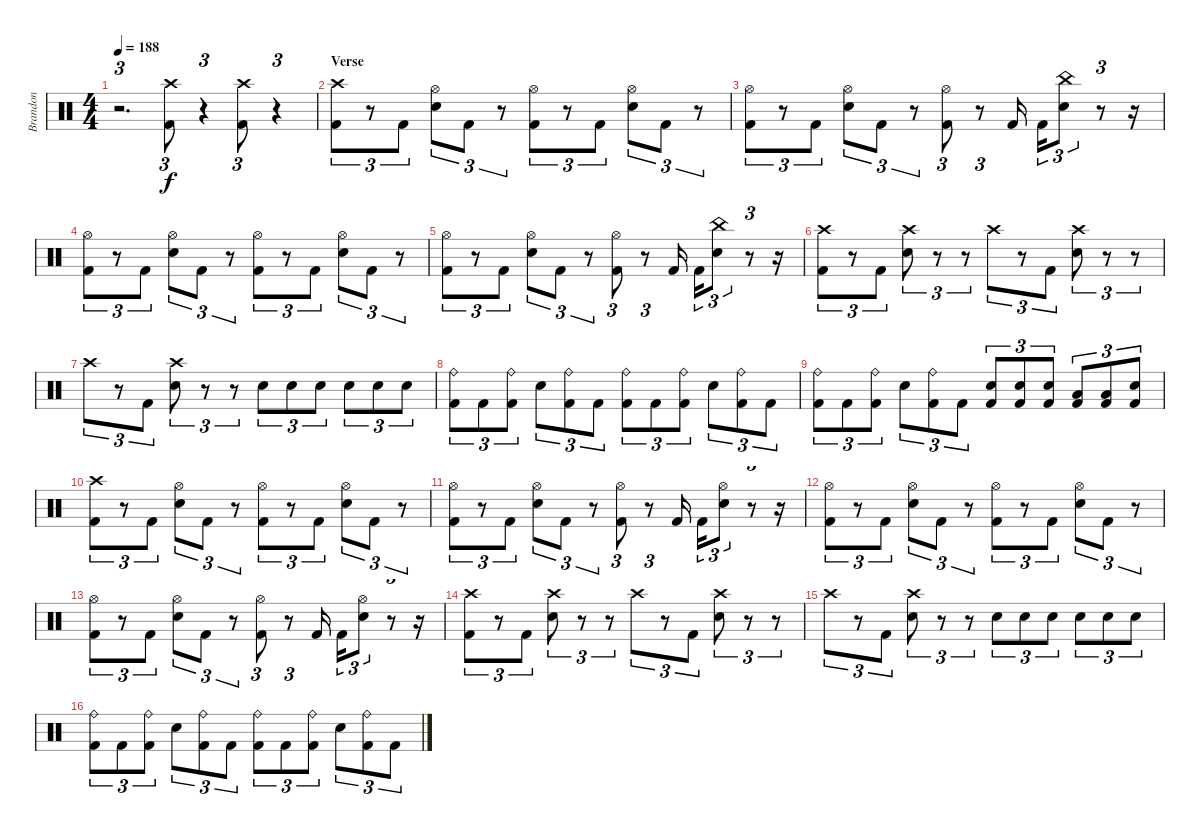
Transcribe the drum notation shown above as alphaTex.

\track ("Brandon" "Brandon") {instrument percussion}
\staff {score}
\articulation defaults
\ts (4 4)
\tempo 188
\clef neutral
\ks c
r.2{d tu (3 2) dy ppp} ("Crash high (hit)" "Kick (hit) 2").8{tu (3 2) dy f} r.4{tu (3 2)} ("Crash high (hit)" "Kick (hit) 2").8{tu (3 2)} r.4{tu (3 2)} |
\section ("" "Verse")
("Crash high (hit)" "Kick (hit) 2").8{tu (3 2)} r.8{tu (3 2)} "Kick (hit) 2".8{tu (3 2)} ("Hi-Hat (open)" "Electric Snare (hit)").8{tu (3 2)} "Kick (hit) 2".8{tu (3 2)} r.8{tu (3 2)} ("Hi-Hat (open)" "Kick (hit) 2").8{tu (3 2)} r.8{tu (3 2)} "Kick (hit) 2".8{tu (3 2)} ("Hi-Hat (open)" "Electric Snare (hit)").8{tu (3 2)} "Kick (hit) 2".8{tu (3 2)} r.8{tu (3 2)} |
("Hi-Hat (open)" "Kick (hit) 2").8{tu (3 2)} r.8{tu (3 2)} "Kick (hit) 2".8{tu (3 2)} ("Hi-Hat (open)" "Electric Snare (hit)").8{tu (3 2)} "Kick (hit) 2".8{tu (3 2)} r.8{tu (3 2)} ("Hi-Hat (open)" "Kick (hit) 2").8{tu (3 2)} r.8{tu (3 2)} "Kick (hit) 2".16 "Kick (hit) 2".16{tu (3 2)} ("China (hit)" "Electric Snare (hit)").8{tu (3 2)} r.8{tu (3 2)} r.16 |
("Hi-Hat (open)" "Kick (hit) 2").8{tu (3 2)} r.8{tu (3 2)} "Kick (hit) 2".8{tu (3 2)} ("Hi-Hat (open)" "Electric Snare (hit)").8{tu (3 2)} "Kick (hit) 2".8{tu (3 2)} r.8{tu (3 2)} ("Hi-Hat (open)" "Kick (hit) 2").8{tu (3 2)} r.8{tu (3 2)} "Kick (hit) 2".8{tu (3 2)} ("Hi-Hat (open)" "Electric Snare (hit)").8{tu (3 2)} "Kick (hit) 2".8{tu (3 2)} r.8{tu (3 2)} |
("Hi-Hat (open)" "Kick (hit) 2").8{tu (3 2)} r.8{tu (3 2)} "Kick (hit) 2".8{tu (3 2)} ("Hi-Hat (open)" "Electric Snare (hit)").8{tu (3 2)} "Kick (hit) 2".8{tu (3 2)} r.8{tu (3 2)} ("Hi-Hat (open)" "Kick (hit) 2").8{tu (3 2)} r.8{tu (3 2)} "Kick (hit) 2".16 "Kick (hit) 2".16{tu (3 2)} ("China (hit)" "Electric Snare (hit)").8{tu (3 2)} r.8{tu (3 2)} r.16 |
("Crash high (hit)" "Kick (hit) 2").8{tu (3 2)} r.8{tu (3 2)} "Kick (hit) 2".8{tu (3 2)} ("Crash high (hit)" "Electric Snare (hit)").8{tu (3 2)} r.8{tu (3 2)} r.8{tu (3 2)} "Crash high (hit)".8{tu (3 2)} r.8{tu (3 2)} "Kick (hit) 2".8{tu (3 2)} ("Crash high (hit)" "Electric Snare (hit)").8{tu (3 2)} r.8{tu (3 2)} r.8{tu (3 2)} |
"Crash high (hit)".8{tu (3 2)} r.8{tu (3 2)} "Kick (hit) 2".8{tu (3 2)} ("Crash high (hit)" "Electric Snare (hit)").8{tu (3 2)} r.8{tu (3 2)} r.8{tu (3 2)} "Electric Snare (hit)".8{tu (3 2)} "Electric Snare (hit)".8{tu (3 2)} "Electric Snare (hit)".8{tu (3 2)} "Electric Snare (hit)".8{tu (3 2)} "Electric Snare (hit)".8{tu (3 2)} "Electric Snare (hit)".8{tu (3 2)} |
("Ride (bell)" "Kick (hit) 2").8{tu (3 2)} "Kick (hit) 2".8{tu (3 2)} ("Ride (bell)" "Kick (hit) 2").8{tu (3 2)} "Electric Snare (hit)".8{tu (3 2)} ("Ride (bell)" "Kick (hit) 2").8{tu (3 2)} "Kick (hit) 2".8{tu (3 2)} ("Ride (bell)" "Kick (hit) 2").8{tu (3 2)} "Kick (hit) 2".8{tu (3 2)} ("Ride (bell)" "Kick (hit) 2").8{tu (3 2)} "Electric Snare (hit)".8{tu (3 2)} ("Ride (bell)" "Kick (hit) 2").8{tu (3 2)} "Kick (hit) 2".8{tu (3 2)} |
("Ride (bell)" "Kick (hit) 2").8{tu (3 2)} "Kick (hit) 2".8{tu (3 2)} ("Ride (bell)" "Kick (hit) 2").8{tu (3 2)} "Electric Snare (hit)".8{tu (3 2)} ("Ride (bell)" "Kick (hit) 2").8{tu (3 2)} "Kick (hit) 2".8{tu (3 2)} ("Electric Snare (hit)" "Kick (hit) 2").8{tu (3 2)} ("Electric Snare (hit)" "Kick (hit) 2").8{tu (3 2)} ("Electric Snare (hit)" "Kick (hit) 2").8{tu (3 2)} ("Low Tom (hit)" "Kick (hit) 2").8{tu (3 2)} ("Low Tom (hit)" "Kick (hit) 2").8{tu (3 2)} ("Electric Snare (hit)" "Kick (hit) 2").8{tu (3 2)} |
("Crash high (hit)" "Kick (hit) 2").8{tu (3 2)} r.8{tu (3 2)} "Kick (hit) 2".8{tu (3 2)} ("Hi-Hat (open)" "Electric Snare (hit)").8{tu (3 2)} "Kick (hit) 2".8{tu (3 2)} r.8{tu (3 2)} ("Hi-Hat (open)" "Kick (hit) 2").8{tu (3 2)} r.8{tu (3 2)} "Kick (hit) 2".8{tu (3 2)} ("Hi-Hat (open)" "Electric Snare (hit)").8{tu (3 2)} "Kick (hit) 2".8{tu (3 2)} r.8{tu (3 2)} |
("Hi-Hat (open)" "Kick (hit) 2").8{tu (3 2)} r.8{tu (3 2)} "Kick (hit) 2".8{tu (3 2)} ("Hi-Hat (open)" "Electric Snare (hit)").8{tu (3 2)} "Kick (hit) 2".8{tu (3 2)} r.8{tu (3 2)} ("Hi-Hat (open)" "Kick (hit) 2").8{tu (3 2)} r.8{tu (3 2)} "Kick (hit) 2".16 "Kick (hit) 2".16{tu (3 2)} ("Hi-Hat (open)" "Electric Snare (hit)").8{tu (3 2)} r.8{tu (3 2)} r.16 |
("Hi-Hat (open)" "Kick (hit) 2").8{tu (3 2)} r.8{tu (3 2)} "Kick (hit) 2".8{tu (3 2)} ("Hi-Hat (open)" "Electric Snare (hit)").8{tu (3 2)} "Kick (hit) 2".8{tu (3 2)} r.8{tu (3 2)} ("Hi-Hat (open)" "Kick (hit) 2").8{tu (3 2)} r.8{tu (3 2)} "Kick (hit) 2".8{tu (3 2)} ("Hi-Hat (open)" "Electric Snare (hit)").8{tu (3 2)} "Kick (hit) 2".8{tu (3 2)} r.8{tu (3 2)} |
("Hi-Hat (open)" "Kick (hit) 2").8{tu (3 2)} r.8{tu (3 2)} "Kick (hit) 2".8{tu (3 2)} ("Hi-Hat (open)" "Electric Snare (hit)").8{tu (3 2)} "Kick (hit) 2".8{tu (3 2)} r.8{tu (3 2)} ("Hi-Hat (open)" "Kick (hit) 2").8{tu (3 2)} r.8{tu (3 2)} "Kick (hit) 2".16 "Kick (hit) 2".16{tu (3 2)} ("Hi-Hat (open)" "Electric Snare (hit)").8{tu (3 2)} r.8{tu (3 2)} r.16 |
("Crash high (hit)" "Kick (hit) 2").8{tu (3 2)} r.8{tu (3 2)} "Kick (hit) 2".8{tu (3 2)} ("Crash high (hit)" "Electric Snare (hit)").8{tu (3 2)} r.8{tu (3 2)} r.8{tu (3 2)} "Crash high (hit)".8{tu (3 2)} r.8{tu (3 2)} "Kick (hit) 2".8{tu (3 2)} ("Crash high (hit)" "Electric Snare (hit)").8{tu (3 2)} r.8{tu (3 2)} r.8{tu (3 2)} |
"Crash high (hit)".8{tu (3 2)} r.8{tu (3 2)} "Kick (hit) 2".8{tu (3 2)} ("Crash high (hit)" "Electric Snare (hit)").8{tu (3 2)} r.8{tu (3 2)} r.8{tu (3 2)} "Electric Snare (hit)".8{tu (3 2)} "Electric Snare (hit)".8{tu (3 2)} "Electric Snare (hit)".8{tu (3 2)} "Electric Snare (hit)".8{tu (3 2)} "Electric Snare (hit)".8{tu (3 2)} "Electric Snare (hit)".8{tu (3 2)} |
("Ride (bell)" "Kick (hit) 2").8{tu (3 2)} "Kick (hit) 2".8{tu (3 2)} ("Ride (bell)" "Kick (hit) 2").8{tu (3 2)} "Electric Snare (hit)".8{tu (3 2)} ("Ride (bell)" "Kick (hit) 2").8{tu (3 2)} "Kick (hit) 2".8{tu (3 2)} ("Ride (bell)" "Kick (hit) 2").8{tu (3 2)} "Kick (hit) 2".8{tu (3 2)} ("Ride (bell)" "Kick (hit) 2").8{tu (3 2)} "Electric Snare (hit)".8{tu (3 2)} ("Ride (bell)" "Kick (hit) 2").8{tu (3 2)} "Kick (hit) 2".8{tu (3 2)}
